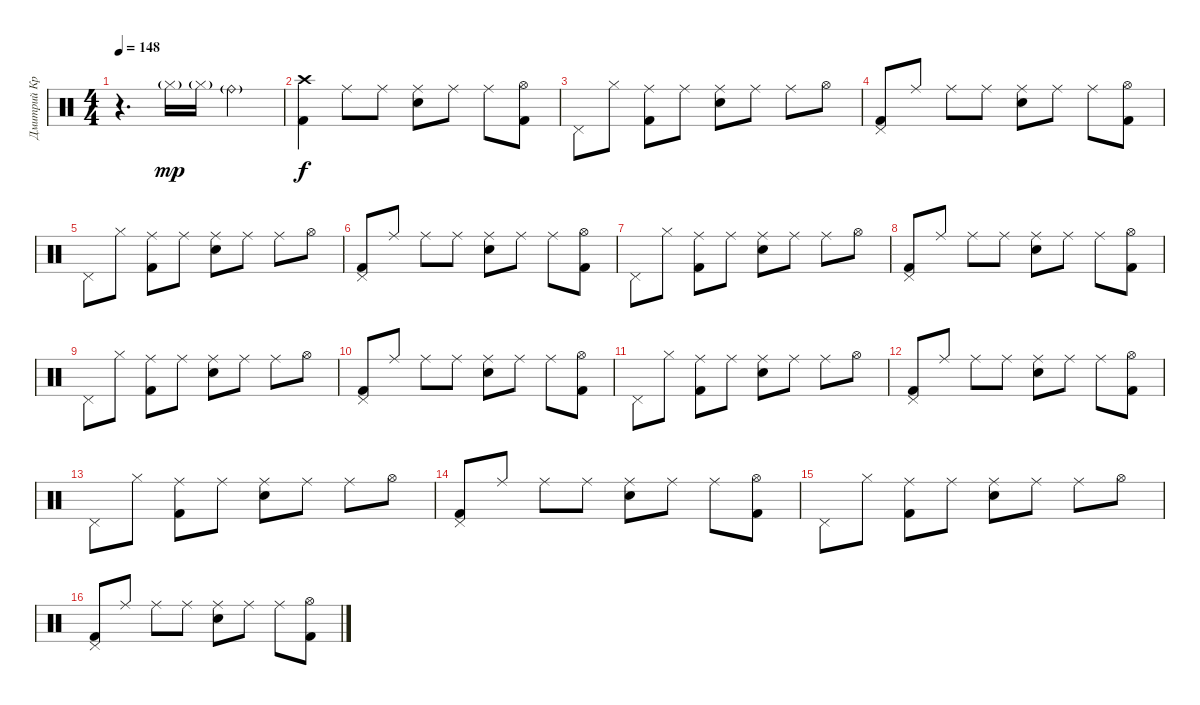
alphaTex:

\track ("Дмитрий Кривенков" "Дмитрий Кр") {instrument percussion}
\staff {score}
\articulation defaults
\ts (4 4)
\tempo 148
\clef neutral
\ks c
r.4{d dy mp} "Hi-Hat (closed)"{g}.16 "Hi-Hat (closed)"{g}.16 "Ride (bell)"{g}.2 |
("Crash high (hit)" "Kick (hit) 2").4{dy f} "Ride (middle)".8 "Ride (middle)".8 ("Ride (middle)" "Electric Snare (hit)").8 "Ride (middle)".8 "Ride (middle)".8 ("Hi-Hat (open)" "Kick (hit) 2").8 |
"Pedal Hi-Hat (hit)".8 "Hi-Hat (closed)".8 ("Ride (middle)" "Kick (hit) 2").8 "Ride (middle)".8 ("Ride (middle)" "Electric Snare (hit)").8 "Ride (middle)".8 "Ride (middle)".8 "Hi-Hat (open)".8 |
("Pedal Hi-Hat (hit)" "Kick (hit) 2").8 "Ride (middle)".8 "Ride (middle)".8 "Ride (middle)".8 ("Ride (middle)" "Electric Snare (hit)").8 "Ride (middle)".8 "Ride (middle)".8 ("Hi-Hat (open)" "Kick (hit) 2").8 |
"Pedal Hi-Hat (hit)".8 "Hi-Hat (closed)".8 ("Ride (middle)" "Kick (hit) 2").8 "Ride (middle)".8 ("Ride (middle)" "Electric Snare (hit)").8 "Ride (middle)".8 "Ride (middle)".8 "Hi-Hat (open)".8 |
("Pedal Hi-Hat (hit)" "Kick (hit) 2").8 "Ride (middle)".8 "Ride (middle)".8 "Ride (middle)".8 ("Ride (middle)" "Electric Snare (hit)").8 "Ride (middle)".8 "Ride (middle)".8 ("Hi-Hat (open)" "Kick (hit) 2").8 |
"Pedal Hi-Hat (hit)".8 "Hi-Hat (closed)".8 ("Ride (middle)" "Kick (hit) 2").8 "Ride (middle)".8 ("Ride (middle)" "Electric Snare (hit)").8 "Ride (middle)".8 "Ride (middle)".8 "Hi-Hat (open)".8 |
("Pedal Hi-Hat (hit)" "Kick (hit) 2").8 "Ride (middle)".8 "Ride (middle)".8 "Ride (middle)".8 ("Ride (middle)" "Electric Snare (hit)").8 "Ride (middle)".8 "Ride (middle)".8 ("Hi-Hat (open)" "Kick (hit) 2").8 |
"Pedal Hi-Hat (hit)".8 "Hi-Hat (closed)".8 ("Ride (middle)" "Kick (hit) 2").8 "Ride (middle)".8 ("Ride (middle)" "Electric Snare (hit)").8 "Ride (middle)".8 "Ride (middle)".8 "Hi-Hat (open)".8 |
("Pedal Hi-Hat (hit)" "Kick (hit) 2").8 "Ride (middle)".8 "Ride (middle)".8 "Ride (middle)".8 ("Ride (middle)" "Electric Snare (hit)").8 "Ride (middle)".8 "Ride (middle)".8 ("Hi-Hat (open)" "Kick (hit) 2").8 |
"Pedal Hi-Hat (hit)".8 "Hi-Hat (closed)".8 ("Ride (middle)" "Kick (hit) 2").8 "Ride (middle)".8 ("Ride (middle)" "Electric Snare (hit)").8 "Ride (middle)".8 "Ride (middle)".8 "Hi-Hat (open)".8 |
("Pedal Hi-Hat (hit)" "Kick (hit) 2").8 "Ride (middle)".8 "Ride (middle)".8 "Ride (middle)".8 ("Ride (middle)" "Electric Snare (hit)").8 "Ride (middle)".8 "Ride (middle)".8 ("Hi-Hat (open)" "Kick (hit) 2").8 |
"Pedal Hi-Hat (hit)".8 "Hi-Hat (closed)".8 ("Ride (middle)" "Kick (hit) 2").8 "Ride (middle)".8 ("Ride (middle)" "Electric Snare (hit)").8 "Ride (middle)".8 "Ride (middle)".8 "Hi-Hat (open)".8 |
("Pedal Hi-Hat (hit)" "Kick (hit) 2").8 "Ride (middle)".8 "Ride (middle)".8 "Ride (middle)".8 ("Ride (middle)" "Electric Snare (hit)").8 "Ride (middle)".8 "Ride (middle)".8 ("Hi-Hat (open)" "Kick (hit) 2").8 |
"Pedal Hi-Hat (hit)".8 "Hi-Hat (closed)".8 ("Ride (middle)" "Kick (hit) 2").8 "Ride (middle)".8 ("Ride (middle)" "Electric Snare (hit)").8 "Ride (middle)".8 "Ride (middle)".8 "Hi-Hat (open)".8 |
("Pedal Hi-Hat (hit)" "Kick (hit) 2").8 "Ride (middle)".8 "Ride (middle)".8 "Ride (middle)".8 ("Ride (middle)" "Electric Snare (hit)").8 "Ride (middle)".8 "Ride (middle)".8 ("Hi-Hat (open)" "Kick (hit) 2").8
